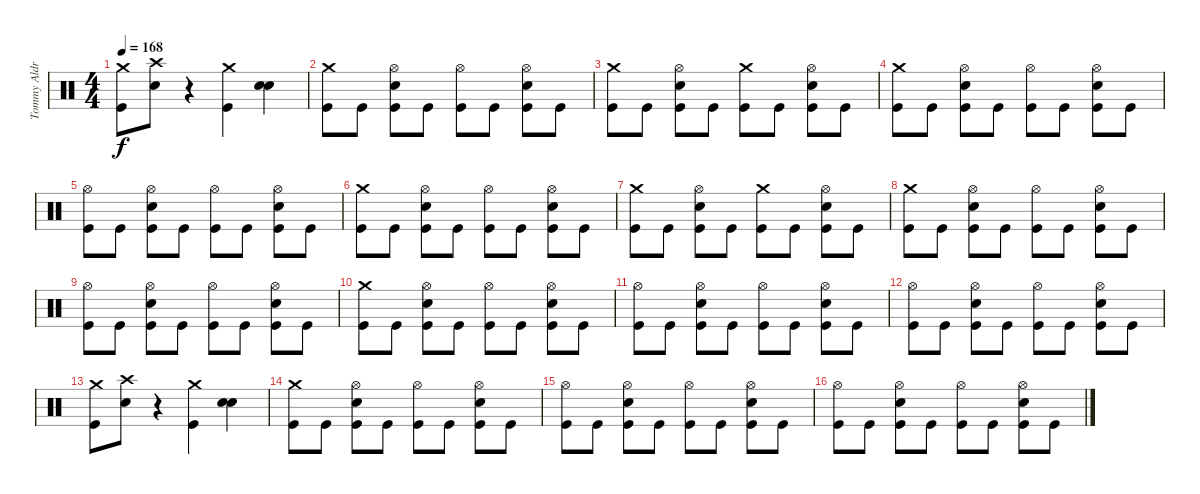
\track ("Tommy Aldrige" "Tommy Aldr") {instrument percussion}
\staff {score}
\articulation defaults
\ts (4 4)
\tempo 168
\clef neutral
\ks c
("Crash medium (hit)" "Kick (hit)").8{dy f} ("Crash high (hit)" "Snare (hit) 2").8 r.4 ("Crash medium (hit)" "Kick (hit)").4 ("Snare (hit) 2" "Snare (hit) 2").4{bd 240} |
("Crash medium (hit)" "Kick (hit)").8 "Kick (hit)".8 ("Hi-Hat (open)" "Snare (hit) 2" "Kick (hit)").8 "Kick (hit)".8 ("Hi-Hat (open)" "Kick (hit)").8 "Kick (hit)".8 ("Hi-Hat (open)" "Snare (hit) 2" "Kick (hit)").8 "Kick (hit)".8 |
("Crash medium (hit)" "Kick (hit)").8 "Kick (hit)".8 ("Hi-Hat (open)" "Snare (hit) 2" "Kick (hit)").8 "Kick (hit)".8 ("Crash medium (hit)" "Kick (hit)").8 "Kick (hit)".8 ("Hi-Hat (open)" "Snare (hit) 2" "Kick (hit)").8 "Kick (hit)".8 |
("Crash medium (hit)" "Kick (hit)").8 "Kick (hit)".8 ("Hi-Hat (open)" "Snare (hit) 2" "Kick (hit)").8 "Kick (hit)".8 ("Hi-Hat (open)" "Kick (hit)").8 "Kick (hit)".8 ("Hi-Hat (open)" "Snare (hit) 2" "Kick (hit)").8 "Kick (hit)".8 |
("Hi-Hat (open)" "Kick (hit)").8 "Kick (hit)".8 ("Hi-Hat (open)" "Snare (hit) 2" "Kick (hit)").8 "Kick (hit)".8 ("Hi-Hat (open)" "Kick (hit)").8 "Kick (hit)".8 ("Hi-Hat (open)" "Snare (hit) 2" "Kick (hit)").8 "Kick (hit)".8 |
("Crash medium (hit)" "Kick (hit)").8 "Kick (hit)".8 ("Hi-Hat (open)" "Snare (hit) 2" "Kick (hit)").8 "Kick (hit)".8 ("Hi-Hat (open)" "Kick (hit)").8 "Kick (hit)".8 ("Hi-Hat (open)" "Snare (hit) 2" "Kick (hit)").8 "Kick (hit)".8 |
("Crash medium (hit)" "Kick (hit)").8 "Kick (hit)".8 ("Hi-Hat (open)" "Snare (hit) 2" "Kick (hit)").8 "Kick (hit)".8 ("Crash medium (hit)" "Kick (hit)").8 "Kick (hit)".8 ("Hi-Hat (open)" "Snare (hit) 2" "Kick (hit)").8 "Kick (hit)".8 |
("Crash medium (hit)" "Kick (hit)").8 "Kick (hit)".8 ("Hi-Hat (open)" "Snare (hit) 2" "Kick (hit)").8 "Kick (hit)".8 ("Hi-Hat (open)" "Kick (hit)").8 "Kick (hit)".8 ("Hi-Hat (open)" "Snare (hit) 2" "Kick (hit)").8 "Kick (hit)".8 |
("Hi-Hat (open)" "Kick (hit)").8 "Kick (hit)".8 ("Hi-Hat (open)" "Snare (hit) 2" "Kick (hit)").8 "Kick (hit)".8 ("Hi-Hat (open)" "Kick (hit)").8 "Kick (hit)".8 ("Hi-Hat (open)" "Snare (hit) 2" "Kick (hit)").8 "Kick (hit)".8 |
("Crash medium (hit)" "Kick (hit)").8 "Kick (hit)".8 ("Hi-Hat (open)" "Snare (hit) 2" "Kick (hit)").8 "Kick (hit)".8 ("Hi-Hat (open)" "Kick (hit)").8 "Kick (hit)".8 ("Hi-Hat (open)" "Snare (hit) 2" "Kick (hit)").8 "Kick (hit)".8 |
("Hi-Hat (open)" "Kick (hit)").8 "Kick (hit)".8 ("Hi-Hat (open)" "Snare (hit) 2" "Kick (hit)").8 "Kick (hit)".8 ("Hi-Hat (open)" "Kick (hit)").8 "Kick (hit)".8 ("Hi-Hat (open)" "Snare (hit) 2" "Kick (hit)").8 "Kick (hit)".8 |
("Hi-Hat (open)" "Kick (hit)").8 "Kick (hit)".8 ("Hi-Hat (open)" "Snare (hit) 2" "Kick (hit)").8 "Kick (hit)".8 ("Hi-Hat (open)" "Kick (hit)").8 "Kick (hit)".8 ("Hi-Hat (open)" "Snare (hit) 2" "Kick (hit)").8 "Kick (hit)".8 |
("Crash medium (hit)" "Kick (hit)").8 ("Crash high (hit)" "Snare (hit) 2").8 r.4 ("Crash medium (hit)" "Kick (hit)").4 ("Snare (hit) 2" "Snare (hit) 2").4{bd 240} |
("Crash medium (hit)" "Kick (hit)").8 "Kick (hit)".8 ("Hi-Hat (open)" "Snare (hit) 2" "Kick (hit)").8 "Kick (hit)".8 ("Hi-Hat (open)" "Kick (hit)").8 "Kick (hit)".8 ("Hi-Hat (open)" "Snare (hit) 2" "Kick (hit)").8 "Kick (hit)".8 |
("Hi-Hat (open)" "Kick (hit)").8 "Kick (hit)".8 ("Hi-Hat (open)" "Snare (hit) 2" "Kick (hit)").8 "Kick (hit)".8 ("Hi-Hat (open)" "Kick (hit)").8 "Kick (hit)".8 ("Hi-Hat (open)" "Snare (hit) 2" "Kick (hit)").8 "Kick (hit)".8 |
("Hi-Hat (open)" "Kick (hit)").8 "Kick (hit)".8 ("Hi-Hat (open)" "Snare (hit) 2" "Kick (hit)").8 "Kick (hit)".8 ("Hi-Hat (open)" "Kick (hit)").8 "Kick (hit)".8 ("Hi-Hat (open)" "Snare (hit) 2" "Kick (hit)").8 "Kick (hit)".8
